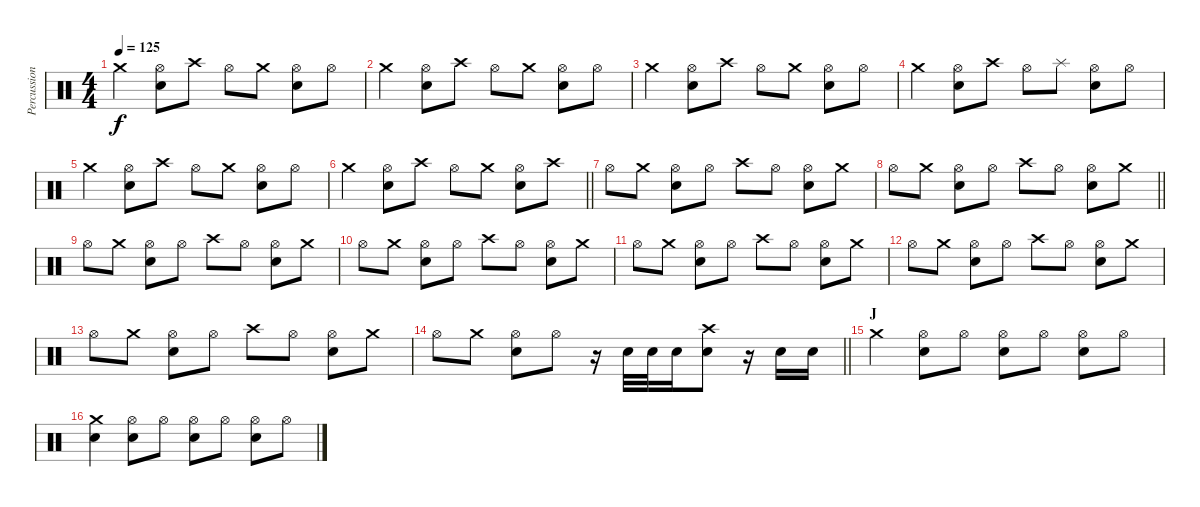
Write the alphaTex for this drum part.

\track ("Percussion" "Percussion") {instrument percussion}
\staff {score}
\articulation defaults
\ts (4 4)
\tempo 125
\clef neutral
\ks c "Crash medium (hit)".4{dy f}
("Hi-Hat (open)" "Snare (hit) 2").8 "Crash high (hit)".8 "Hi-Hat (open)".8 "Crash medium (hit)".8 ("Hi-Hat (open)" "Snare (hit) 2").8 "Hi-Hat (open)".8 |
"Crash medium (hit)".4 ("Hi-Hat (open)" "Snare (hit) 2").8 "Crash high (hit)".8 "Hi-Hat (open)".8 "Crash medium (hit)".8 ("Hi-Hat (open)" "Snare (hit) 2").8 "Hi-Hat (open)".8 |
"Crash medium (hit)".4 ("Hi-Hat (open)" "Snare (hit) 2").8 "Crash high (hit)".8 "Hi-Hat (open)".8 "Crash medium (hit)".8 ("Hi-Hat (open)" "Snare (hit) 2").8 "Hi-Hat (open)".8 |
"Crash medium (hit)".4 ("Hi-Hat (open)" "Snare (hit) 2").8 "Crash high (hit)".8 "Hi-Hat (open)".8 "Splash (hit)".8 ("Hi-Hat (open)" "Snare (hit) 2").8 "Hi-Hat (open)".8 |
"Crash medium (hit)".4 ("Hi-Hat (open)" "Snare (hit) 2").8 "Crash high (hit)".8 "Hi-Hat (open)".8 "Crash medium (hit)".8 ("Hi-Hat (open)" "Snare (hit) 2").8 "Hi-Hat (open)".8 |
\barLineRight lightlight "Crash medium (hit)".4
("Hi-Hat (open)" "Snare (hit) 2").8 "Crash high (hit)".8 "Hi-Hat (open)".8 "Crash medium (hit)".8 ("Hi-Hat (open)" "Snare (hit) 2").8 "Crash high (hit)".8 |
"Hi-Hat (open)".8 "Crash medium (hit)".8 ("Hi-Hat (open)" "Snare (hit) 2").8 "Hi-Hat (open)".8 "Crash high (hit)".8 "Hi-Hat (open)".8 ("Hi-Hat (open)" "Snare (hit) 2").8 "Crash medium (hit)".8 |
\barLineRight lightlight "Hi-Hat (open)".8 "Crash medium (hit)".8
("Hi-Hat (open)" "Snare (hit) 2").8 "Hi-Hat (open)".8 "Crash high (hit)".8 "Hi-Hat (open)".8 ("Hi-Hat (open)" "Snare (hit) 2").8 "Crash medium (hit)".8 |
"Hi-Hat (open)".8 "Crash medium (hit)".8 ("Hi-Hat (open)" "Snare (hit) 2").8 "Hi-Hat (open)".8 "Crash high (hit)".8 "Hi-Hat (open)".8 ("Hi-Hat (open)" "Snare (hit) 2").8 "Crash medium (hit)".8 |
"Hi-Hat (open)".8 "Crash medium (hit)".8 ("Hi-Hat (open)" "Snare (hit) 2").8 "Hi-Hat (open)".8 "Crash high (hit)".8 "Hi-Hat (open)".8 ("Hi-Hat (open)" "Snare (hit) 2").8 "Crash medium (hit)".8 |
"Hi-Hat (open)".8 "Crash medium (hit)".8 ("Hi-Hat (open)" "Snare (hit) 2").8 "Hi-Hat (open)".8 "Crash high (hit)".8 "Hi-Hat (open)".8 ("Hi-Hat (open)" "Snare (hit) 2").8 "Crash medium (hit)".8 |
"Hi-Hat (open)".8 "Crash medium (hit)".8 ("Hi-Hat (open)" "Snare (hit) 2").8 "Hi-Hat (open)".8 "Crash high (hit)".8 "Hi-Hat (open)".8 ("Hi-Hat (open)" "Snare (hit) 2").8 "Crash medium (hit)".8 |
"Hi-Hat (open)".8 "Crash medium (hit)".8 ("Hi-Hat (open)" "Snare (hit) 2").8 "Hi-Hat (open)".8 "Crash high (hit)".8 "Hi-Hat (open)".8 ("Hi-Hat (open)" "Snare (hit) 2").8 "Crash medium (hit)".8 |
\barLineRight lightlight "Hi-Hat (open)".8 "Crash medium (hit)".8
("Hi-Hat (open)" "Snare (hit) 2").8 "Hi-Hat (open)".8 r.16 "Snare (hit) 2".32 "Snare (hit) 2".32 "Snare (hit) 2".16 ("Crash high (hit)" "Snare (hit) 2").8 r.16 "Snare (hit) 2".16 "Snare (hit) 2".16 |
\section ("" "J")
"Crash medium (hit)".4 ("Hi-Hat (open)" "Snare (hit) 2").8 "Hi-Hat (open)".8 ("Hi-Hat (open)" "Snare (hit) 2").8 "Hi-Hat (open)".8 ("Hi-Hat (open)" "Snare (hit) 2").8 "Hi-Hat (open)".8 |
("Crash medium (hit)" "Snare (hit) 2").4 ("Hi-Hat (open)" "Snare (hit) 2").8 "Hi-Hat (open)".8 ("Hi-Hat (open)" "Snare (hit) 2").8 "Hi-Hat (open)".8 ("Hi-Hat (open)" "Snare (hit) 2").8 "Hi-Hat (open)".8
